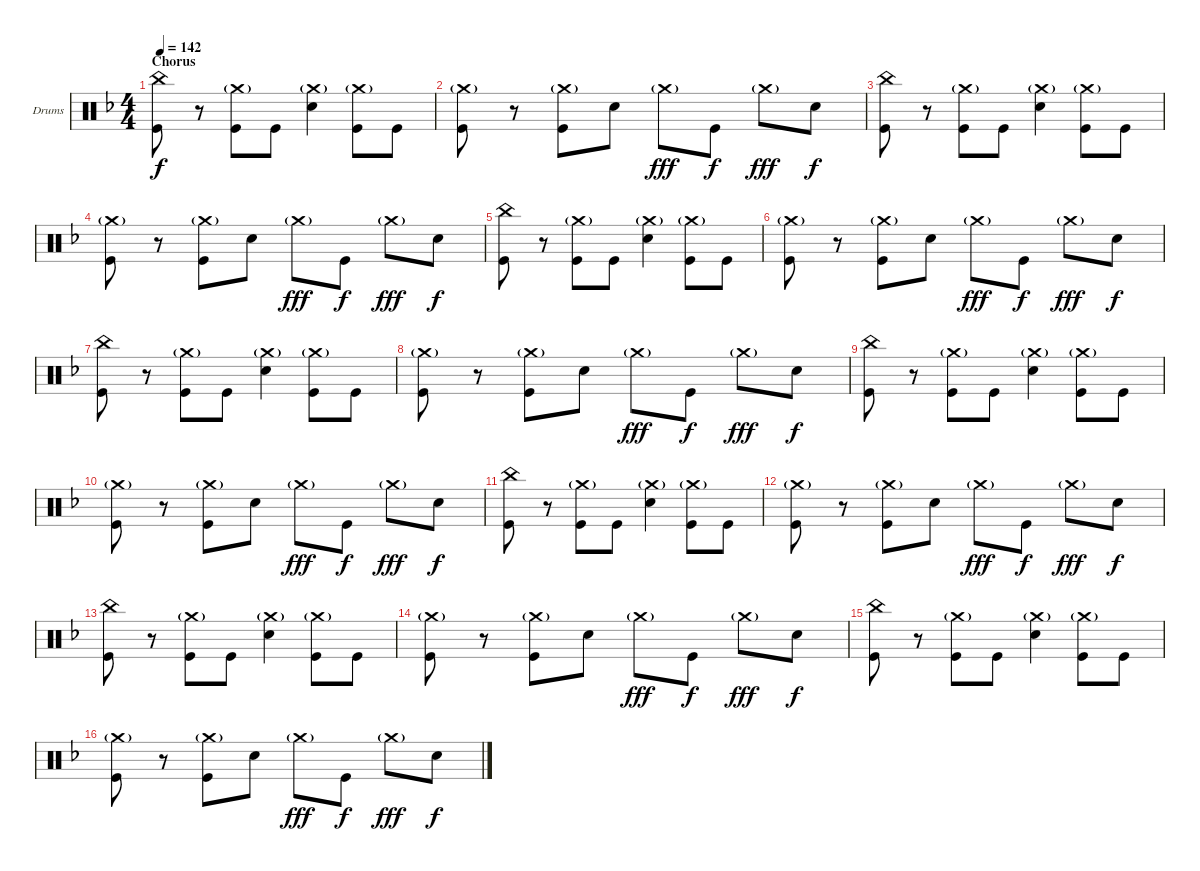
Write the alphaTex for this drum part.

\defaultSystemsLayout 4
\bracketExtendMode groupsimilarinstruments
\firstSystemTrackNameOrientation horizontal
\otherSystemsTrackNameOrientation horizontal
\track ("Mark" "Drums") {instrument percussion}
\staff {score}
\articulation defaults
\ts (4 4)
\section ("" "Chorus")
\tempo 142
\clef neutral
\scale
0.333333
\ks f
("China (hit)" "Kick (hit)").8{dy f} r.8 ("Crash medium (hit)"{g} "Kick (hit)").8 "Kick (hit)".8 ("Crash medium (hit)"{g} "Snare (hit) 2").4 ("Crash medium (hit)"{g} "Kick (hit)").8 "Kick (hit)".8 |
\scale
0.333333 ("Crash medium (hit)"{g} "Kick (hit)").8 r.8 ("Crash medium (hit)"{g} "Kick (hit)").8 "Snare (hit) 2".8 "Crash medium (hit)"{g}.8{dy fff} "Kick (hit)".8{dy f} "Crash medium (hit)"{g}.8{dy fff} "Snare (hit) 2".8{dy f} |
\scale
0.333333 ("China (hit)" "Kick (hit)").8 r.8 ("Crash medium (hit)"{g} "Kick (hit)").8 "Kick (hit)".8 ("Crash medium (hit)"{g} "Snare (hit) 2").4 ("Crash medium (hit)"{g} "Kick (hit)").8 "Kick (hit)".8 |
\scale
0.333333 ("Crash medium (hit)"{g} "Kick (hit)").8 r.8 ("Crash medium (hit)"{g} "Kick (hit)").8 "Snare (hit) 2".8 "Crash medium (hit)"{g}.8{dy fff} "Kick (hit)".8{dy f} "Crash medium (hit)"{g}.8{dy fff} "Snare (hit) 2".8{dy f} |
\scale
0.333333 ("China (hit)" "Kick (hit)").8 r.8 ("Crash medium (hit)"{g} "Kick (hit)").8 "Kick (hit)".8 ("Crash medium (hit)"{g} "Snare (hit) 2").4 ("Crash medium (hit)"{g} "Kick (hit)").8 "Kick (hit)".8 |
\scale
0.333333 ("Crash medium (hit)"{g} "Kick (hit)").8 r.8 ("Crash medium (hit)"{g} "Kick (hit)").8 "Snare (hit) 2".8 "Crash medium (hit)"{g}.8{dy fff} "Kick (hit)".8{dy f} "Crash medium (hit)"{g}.8{dy fff} "Snare (hit) 2".8{dy f} |
\scale
0.333333 ("China (hit)" "Kick (hit)").8 r.8 ("Crash medium (hit)"{g} "Kick (hit)").8 "Kick (hit)".8 ("Crash medium (hit)"{g} "Snare (hit) 2").4 ("Crash medium (hit)"{g} "Kick (hit)").8 "Kick (hit)".8 |
\scale
0.333333 ("Crash medium (hit)"{g} "Kick (hit)").8 r.8 ("Crash medium (hit)"{g} "Kick (hit)").8 "Snare (hit) 2".8 "Crash medium (hit)"{g}.8{dy fff} "Kick (hit)".8{dy f} "Crash medium (hit)"{g}.8{dy fff} "Snare (hit) 2".8{dy f} |
\scale
0.333333 ("China (hit)" "Kick (hit)").8 r.8 ("Crash medium (hit)"{g} "Kick (hit)").8 "Kick (hit)".8 ("Crash medium (hit)"{g} "Snare (hit) 2").4 ("Crash medium (hit)"{g} "Kick (hit)").8 "Kick (hit)".8 |
\scale
0.333333 ("Crash medium (hit)"{g} "Kick (hit)").8 r.8 ("Crash medium (hit)"{g} "Kick (hit)").8 "Snare (hit) 2".8 "Crash medium (hit)"{g}.8{dy fff} "Kick (hit)".8{dy f} "Crash medium (hit)"{g}.8{dy fff} "Snare (hit) 2".8{dy f} |
\scale
0.333333 ("China (hit)" "Kick (hit)").8 r.8 ("Crash medium (hit)"{g} "Kick (hit)").8 "Kick (hit)".8 ("Crash medium (hit)"{g} "Snare (hit) 2").4 ("Crash medium (hit)"{g} "Kick (hit)").8 "Kick (hit)".8 |
\scale
0.333333 ("Crash medium (hit)"{g} "Kick (hit)").8 r.8 ("Crash medium (hit)"{g} "Kick (hit)").8 "Snare (hit) 2".8 "Crash medium (hit)"{g}.8{dy fff} "Kick (hit)".8{dy f} "Crash medium (hit)"{g}.8{dy fff} "Snare (hit) 2".8{dy f} |
\scale
0.333333 ("China (hit)" "Kick (hit)").8 r.8 ("Crash medium (hit)"{g} "Kick (hit)").8 "Kick (hit)".8 ("Crash medium (hit)"{g} "Snare (hit) 2").4 ("Crash medium (hit)"{g} "Kick (hit)").8 "Kick (hit)".8 |
\scale
0.333333 ("Crash medium (hit)"{g} "Kick (hit)").8 r.8 ("Crash medium (hit)"{g} "Kick (hit)").8 "Snare (hit) 2".8 "Crash medium (hit)"{g}.8{dy fff} "Kick (hit)".8{dy f} "Crash medium (hit)"{g}.8{dy fff} "Snare (hit) 2".8{dy f} |
\scale
0.333333 ("China (hit)" "Kick (hit)").8 r.8 ("Crash medium (hit)"{g} "Kick (hit)").8 "Kick (hit)".8 ("Crash medium (hit)"{g} "Snare (hit) 2").4 ("Crash medium (hit)"{g} "Kick (hit)").8 "Kick (hit)".8 |
\scale
0.333333 ("Crash medium (hit)"{g} "Kick (hit)").8 r.8 ("Crash medium (hit)"{g} "Kick (hit)").8 "Snare (hit) 2".8 "Crash medium (hit)"{g}.8{dy fff} "Kick (hit)".8{dy f} "Crash medium (hit)"{g}.8{dy fff} "Snare (hit) 2".8{dy f}
